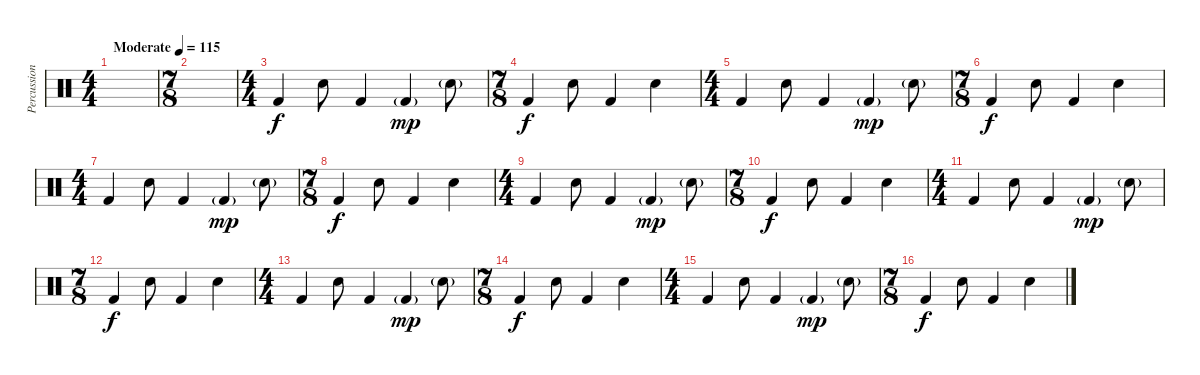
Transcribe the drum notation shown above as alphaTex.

\track ("Percussion" "Percussion") {instrument percussion}
\staff {score}
\articulation defaults
\ts (4 4)
\tempo (115 "Moderate")
\clef neutral
\ks c
|
\ts (7 8)
|
\ts (4 4)
"Kick (hit) 2".4 "Snare (hit) 2".8 "Kick (hit) 2".4 "Kick (hit) 2"{g}.4{dy mp} "Snare (hit) 2"{g}.8 |
\ts (7 8)
"Kick (hit) 2".4{dy f} "Snare (hit) 2".8 "Kick (hit) 2".4 "Snare (hit) 2".4 |
\ts (4 4)
"Kick (hit) 2".4 "Snare (hit) 2".8 "Kick (hit) 2".4 "Kick (hit) 2"{g}.4{dy mp} "Snare (hit) 2"{g}.8 |
\ts (7 8)
"Kick (hit) 2".4{dy f} "Snare (hit) 2".8 "Kick (hit) 2".4 "Snare (hit) 2".4 |
\ts (4 4)
"Kick (hit) 2".4 "Snare (hit) 2".8 "Kick (hit) 2".4 "Kick (hit) 2"{g}.4{dy mp} "Snare (hit) 2"{g}.8 |
\ts (7 8)
"Kick (hit) 2".4{dy f} "Snare (hit) 2".8 "Kick (hit) 2".4 "Snare (hit) 2".4 |
\ts (4 4)
"Kick (hit) 2".4 "Snare (hit) 2".8 "Kick (hit) 2".4 "Kick (hit) 2"{g}.4{dy mp} "Snare (hit) 2"{g}.8 |
\ts (7 8)
"Kick (hit) 2".4{dy f} "Snare (hit) 2".8 "Kick (hit) 2".4 "Snare (hit) 2".4 |
\ts (4 4)
"Kick (hit) 2".4 "Snare (hit) 2".8 "Kick (hit) 2".4 "Kick (hit) 2"{g}.4{dy mp} "Snare (hit) 2"{g}.8 |
\ts (7 8)
"Kick (hit) 2".4{dy f} "Snare (hit) 2".8 "Kick (hit) 2".4 "Snare (hit) 2".4 |
\ts (4 4)
"Kick (hit) 2".4 "Snare (hit) 2".8 "Kick (hit) 2".4 "Kick (hit) 2"{g}.4{dy mp} "Snare (hit) 2"{g}.8 |
\ts (7 8)
"Kick (hit) 2".4{dy f} "Snare (hit) 2".8 "Kick (hit) 2".4 "Snare (hit) 2".4 |
\ts (4 4)
"Kick (hit) 2".4 "Snare (hit) 2".8 "Kick (hit) 2".4 "Kick (hit) 2"{g}.4{dy mp} "Snare (hit) 2"{g}.8 |
\ts (7 8)
"Kick (hit) 2".4{dy f} "Snare (hit) 2".8 "Kick (hit) 2".4 "Snare (hit) 2".4
